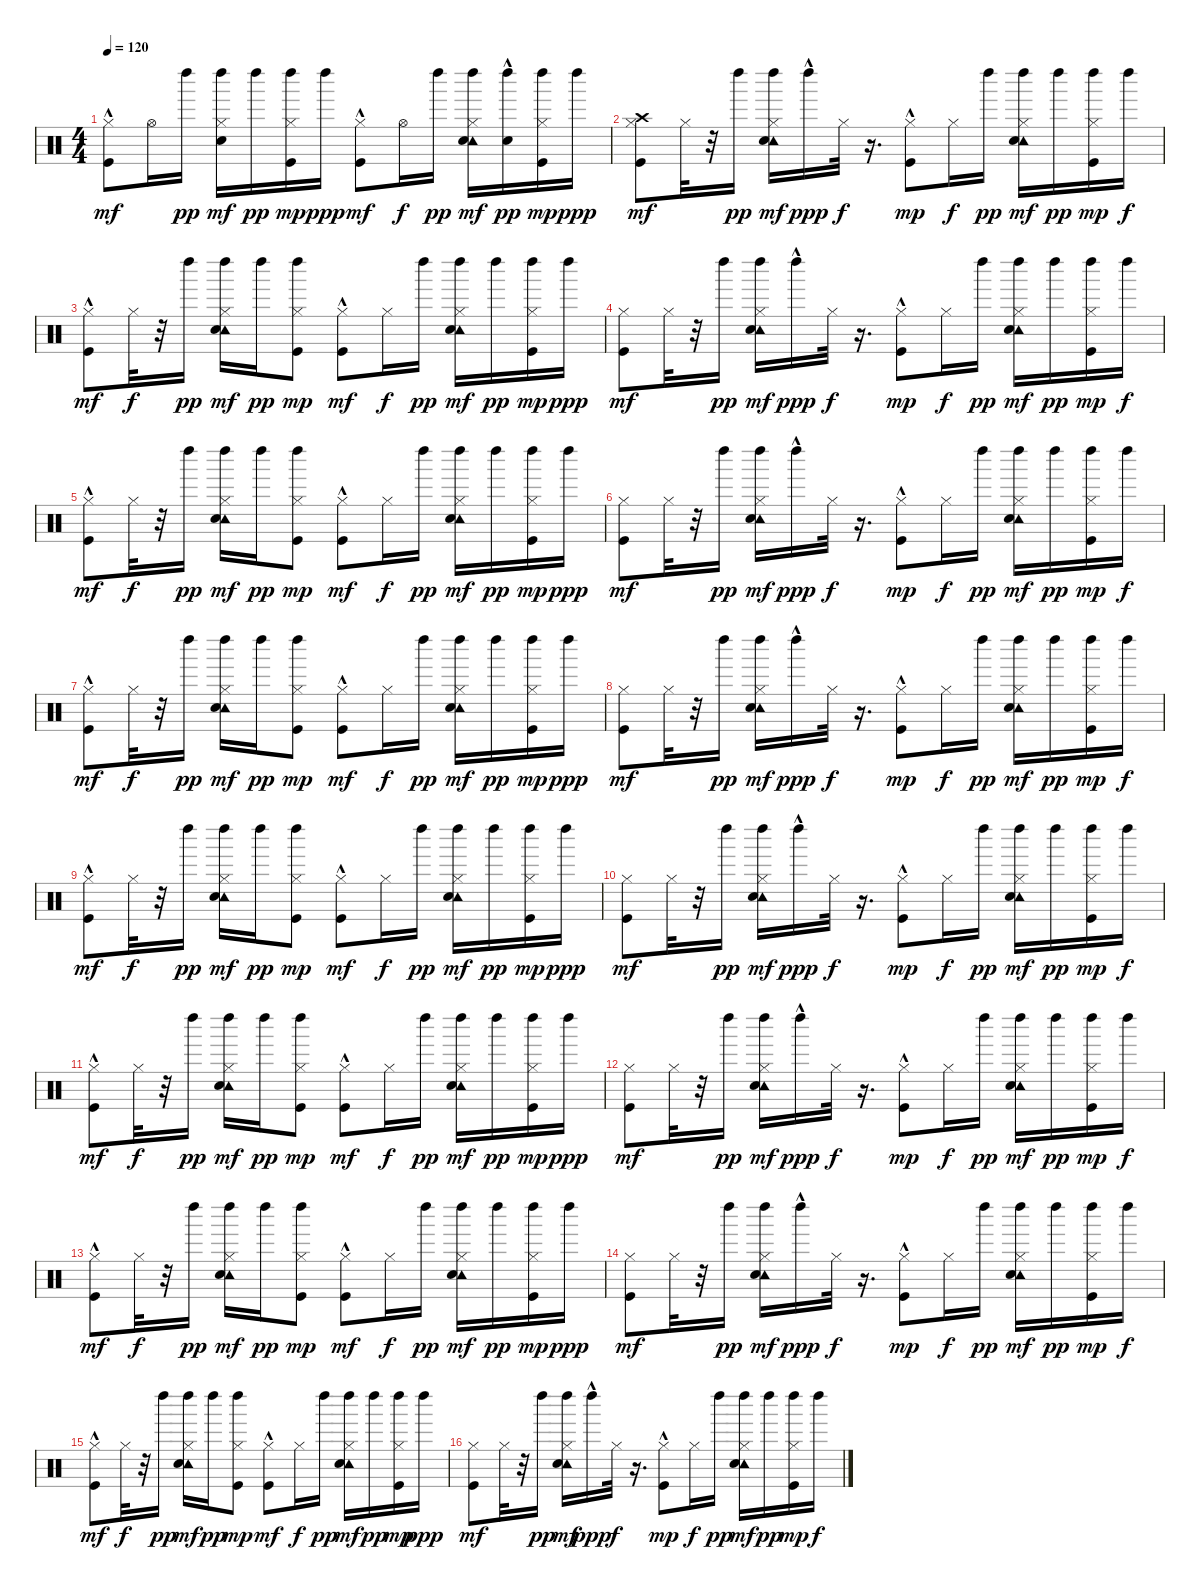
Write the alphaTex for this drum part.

\track "" {instrument percussion}
\staff {score}
\articulation defaults
\ts (4 4)
\tempo 120
\clef neutral
\ks c
("Kick (hit)"{hac} "Hi-Hat (closed)").8{dy mf} "Hi-Hat (open)".16 "Left Maraca (hit)".16{dy pp} ("Left Maraca (hit)" "Hi-Hat (closed)" "Electric Snare (hit)").16{dy mf} "Left Maraca (hit)".16{dy pp} ("Left Maraca (hit)" "Hi-Hat (closed)" "Kick (hit)").16{dy mp} "Left Maraca (hit)".16{dy ppp} ("Kick (hit)"{hac} "Hi-Hat (closed)").8{dy mf} "Hi-Hat (open)".16{dy f} "Left Maraca (hit)".16{dy pp} ("Left Maraca (hit)" "Tambourine (hit)" "Electric Snare (hit)" "Hi-Hat (closed)").16{dy mf} ("Electric Snare (hit)"{hac} "Left Maraca (hit)").16{dy pp} ("Left Maraca (hit)" "Kick (hit)" "Hi-Hat (closed)").16{dy mp} "Left Maraca (hit)".16{dy ppp} |
("Crash high (hit)" "Kick (hit)" "Hi-Hat (closed)").8{dy mf} "Hi-Hat (closed)".32 r.32 "Left Maraca (hit)".16{dy pp} ("Left Maraca (hit)" "Tambourine (hit)" "Electric Snare (hit)" "Hi-Hat (closed)").16{dy mf} "Left Maraca (hit)"{hac}.16{dy ppp} "Hi-Hat (closed)".32{dy f} r.16{d} ("Hi-Hat (closed)" "Kick (hit)"{hac}).8{dy mp} "Hi-Hat (closed)".16{dy f} "Left Maraca (hit)".16{dy pp} ("Left Maraca (hit)" "Tambourine (hit)" "Electric Snare (hit)" "Hi-Hat (closed)").16{dy mf} "Left Maraca (hit)".16{dy pp} ("Left Maraca (hit)" "Kick (hit)" "Hi-Hat (closed)").16{dy mp} "Left Maraca (hit)".16{dy f} |
("Kick (hit)"{hac} "Hi-Hat (closed)").8{dy mf} "Hi-Hat (closed)".32{dy f} r.32 "Left Maraca (hit)".16{dy pp} ("Left Maraca (hit)" "Tambourine (hit)" "Hi-Hat (closed)" "Electric Snare (hit)").16{dy mf} "Left Maraca (hit)".16{dy pp} ("Left Maraca (hit)" "Hi-Hat (closed)" "Kick (hit)").8{dy mp} ("Kick (hit)"{hac} "Hi-Hat (closed)").8{dy mf} "Hi-Hat (closed)".16{dy f} "Left Maraca (hit)".16{dy pp} ("Left Maraca (hit)" "Tambourine (hit)" "Electric Snare (hit)" "Hi-Hat (closed)").16{dy mf} "Left Maraca (hit)".16{dy pp} ("Left Maraca (hit)" "Kick (hit)" "Hi-Hat (closed)").16{dy mp} "Left Maraca (hit)".16{dy ppp} |
("Kick (hit)" "Hi-Hat (closed)").8{dy mf} "Hi-Hat (closed)".32 r.32 "Left Maraca (hit)".16{dy pp} ("Left Maraca (hit)" "Tambourine (hit)" "Electric Snare (hit)" "Hi-Hat (closed)").16{dy mf} "Left Maraca (hit)"{hac}.16{dy ppp} "Hi-Hat (closed)".32{dy f} r.16{d} ("Hi-Hat (closed)" "Kick (hit)"{hac}).8{dy mp} "Hi-Hat (closed)".16{dy f} "Left Maraca (hit)".16{dy pp} ("Left Maraca (hit)" "Tambourine (hit)" "Electric Snare (hit)" "Hi-Hat (closed)").16{dy mf} "Left Maraca (hit)".16{dy pp} ("Left Maraca (hit)" "Kick (hit)" "Hi-Hat (closed)").16{dy mp} "Left Maraca (hit)".16{dy f} |
("Kick (hit)"{hac} "Hi-Hat (closed)").8{dy mf} "Hi-Hat (closed)".32{dy f} r.32 "Left Maraca (hit)".16{dy pp} ("Left Maraca (hit)" "Tambourine (hit)" "Hi-Hat (closed)" "Electric Snare (hit)").16{dy mf} "Left Maraca (hit)".16{dy pp} ("Left Maraca (hit)" "Hi-Hat (closed)" "Kick (hit)").8{dy mp} ("Kick (hit)"{hac} "Hi-Hat (closed)").8{dy mf} "Hi-Hat (closed)".16{dy f} "Left Maraca (hit)".16{dy pp} ("Left Maraca (hit)" "Tambourine (hit)" "Electric Snare (hit)" "Hi-Hat (closed)").16{dy mf} "Left Maraca (hit)".16{dy pp} ("Left Maraca (hit)" "Kick (hit)" "Hi-Hat (closed)").16{dy mp} "Left Maraca (hit)".16{dy ppp} |
("Kick (hit)" "Hi-Hat (closed)").8{dy mf} "Hi-Hat (closed)".32 r.32 "Left Maraca (hit)".16{dy pp} ("Left Maraca (hit)" "Tambourine (hit)" "Electric Snare (hit)" "Hi-Hat (closed)").16{dy mf} "Left Maraca (hit)"{hac}.16{dy ppp} "Hi-Hat (closed)".32{dy f} r.16{d} ("Hi-Hat (closed)" "Kick (hit)"{hac}).8{dy mp} "Hi-Hat (closed)".16{dy f} "Left Maraca (hit)".16{dy pp} ("Left Maraca (hit)" "Tambourine (hit)" "Electric Snare (hit)" "Hi-Hat (closed)").16{dy mf} "Left Maraca (hit)".16{dy pp} ("Left Maraca (hit)" "Kick (hit)" "Hi-Hat (closed)").16{dy mp} "Left Maraca (hit)".16{dy f} |
("Kick (hit)"{hac} "Hi-Hat (closed)").8{dy mf} "Hi-Hat (closed)".32{dy f} r.32 "Left Maraca (hit)".16{dy pp} ("Left Maraca (hit)" "Tambourine (hit)" "Hi-Hat (closed)" "Electric Snare (hit)").16{dy mf} "Left Maraca (hit)".16{dy pp} ("Left Maraca (hit)" "Hi-Hat (closed)" "Kick (hit)").8{dy mp} ("Kick (hit)"{hac} "Hi-Hat (closed)").8{dy mf} "Hi-Hat (closed)".16{dy f} "Left Maraca (hit)".16{dy pp} ("Left Maraca (hit)" "Tambourine (hit)" "Electric Snare (hit)" "Hi-Hat (closed)").16{dy mf} "Left Maraca (hit)".16{dy pp} ("Left Maraca (hit)" "Kick (hit)" "Hi-Hat (closed)").16{dy mp} "Left Maraca (hit)".16{dy ppp} |
("Kick (hit)" "Hi-Hat (closed)").8{dy mf} "Hi-Hat (closed)".32 r.32 "Left Maraca (hit)".16{dy pp} ("Left Maraca (hit)" "Tambourine (hit)" "Electric Snare (hit)" "Hi-Hat (closed)").16{dy mf} "Left Maraca (hit)"{hac}.16{dy ppp} "Hi-Hat (closed)".32{dy f} r.16{d} ("Hi-Hat (closed)" "Kick (hit)"{hac}).8{dy mp} "Hi-Hat (closed)".16{dy f} "Left Maraca (hit)".16{dy pp} ("Left Maraca (hit)" "Tambourine (hit)" "Electric Snare (hit)" "Hi-Hat (closed)").16{dy mf} "Left Maraca (hit)".16{dy pp} ("Left Maraca (hit)" "Kick (hit)" "Hi-Hat (closed)").16{dy mp} "Left Maraca (hit)".16{dy f} |
("Kick (hit)"{hac} "Hi-Hat (closed)").8{dy mf} "Hi-Hat (closed)".32{dy f} r.32 "Left Maraca (hit)".16{dy pp} ("Left Maraca (hit)" "Tambourine (hit)" "Hi-Hat (closed)" "Electric Snare (hit)").16{dy mf} "Left Maraca (hit)".16{dy pp} ("Left Maraca (hit)" "Hi-Hat (closed)" "Kick (hit)").8{dy mp} ("Kick (hit)"{hac} "Hi-Hat (closed)").8{dy mf} "Hi-Hat (closed)".16{dy f} "Left Maraca (hit)".16{dy pp} ("Left Maraca (hit)" "Tambourine (hit)" "Electric Snare (hit)" "Hi-Hat (closed)").16{dy mf} "Left Maraca (hit)".16{dy pp} ("Left Maraca (hit)" "Kick (hit)" "Hi-Hat (closed)").16{dy mp} "Left Maraca (hit)".16{dy ppp} |
("Kick (hit)" "Hi-Hat (closed)").8{dy mf} "Hi-Hat (closed)".32 r.32 "Left Maraca (hit)".16{dy pp} ("Left Maraca (hit)" "Tambourine (hit)" "Electric Snare (hit)" "Hi-Hat (closed)").16{dy mf} "Left Maraca (hit)"{hac}.16{dy ppp} "Hi-Hat (closed)".32{dy f} r.16{d} ("Hi-Hat (closed)" "Kick (hit)"{hac}).8{dy mp} "Hi-Hat (closed)".16{dy f} "Left Maraca (hit)".16{dy pp} ("Left Maraca (hit)" "Tambourine (hit)" "Electric Snare (hit)" "Hi-Hat (closed)").16{dy mf} "Left Maraca (hit)".16{dy pp} ("Left Maraca (hit)" "Kick (hit)" "Hi-Hat (closed)").16{dy mp} "Left Maraca (hit)".16{dy f} |
("Kick (hit)"{hac} "Hi-Hat (closed)").8{dy mf} "Hi-Hat (closed)".32{dy f} r.32 "Left Maraca (hit)".16{dy pp} ("Left Maraca (hit)" "Tambourine (hit)" "Hi-Hat (closed)" "Electric Snare (hit)").16{dy mf} "Left Maraca (hit)".16{dy pp} ("Left Maraca (hit)" "Hi-Hat (closed)" "Kick (hit)").8{dy mp} ("Kick (hit)"{hac} "Hi-Hat (closed)").8{dy mf} "Hi-Hat (closed)".16{dy f} "Left Maraca (hit)".16{dy pp} ("Left Maraca (hit)" "Tambourine (hit)" "Electric Snare (hit)" "Hi-Hat (closed)").16{dy mf} "Left Maraca (hit)".16{dy pp} ("Left Maraca (hit)" "Kick (hit)" "Hi-Hat (closed)").16{dy mp} "Left Maraca (hit)".16{dy ppp} |
("Kick (hit)" "Hi-Hat (closed)").8{dy mf} "Hi-Hat (closed)".32 r.32 "Left Maraca (hit)".16{dy pp} ("Left Maraca (hit)" "Tambourine (hit)" "Electric Snare (hit)" "Hi-Hat (closed)").16{dy mf} "Left Maraca (hit)"{hac}.16{dy ppp} "Hi-Hat (closed)".32{dy f} r.16{d} ("Hi-Hat (closed)" "Kick (hit)"{hac}).8{dy mp} "Hi-Hat (closed)".16{dy f} "Left Maraca (hit)".16{dy pp} ("Left Maraca (hit)" "Tambourine (hit)" "Electric Snare (hit)" "Hi-Hat (closed)").16{dy mf} "Left Maraca (hit)".16{dy pp} ("Left Maraca (hit)" "Kick (hit)" "Hi-Hat (closed)").16{dy mp} "Left Maraca (hit)".16{dy f} |
("Kick (hit)"{hac} "Hi-Hat (closed)").8{dy mf} "Hi-Hat (closed)".32{dy f} r.32 "Left Maraca (hit)".16{dy pp} ("Left Maraca (hit)" "Tambourine (hit)" "Hi-Hat (closed)" "Electric Snare (hit)").16{dy mf} "Left Maraca (hit)".16{dy pp} ("Left Maraca (hit)" "Hi-Hat (closed)" "Kick (hit)").8{dy mp} ("Kick (hit)"{hac} "Hi-Hat (closed)").8{dy mf} "Hi-Hat (closed)".16{dy f} "Left Maraca (hit)".16{dy pp} ("Left Maraca (hit)" "Tambourine (hit)" "Electric Snare (hit)" "Hi-Hat (closed)").16{dy mf} "Left Maraca (hit)".16{dy pp} ("Left Maraca (hit)" "Kick (hit)" "Hi-Hat (closed)").16{dy mp} "Left Maraca (hit)".16{dy ppp} |
("Kick (hit)" "Hi-Hat (closed)").8{dy mf} "Hi-Hat (closed)".32 r.32 "Left Maraca (hit)".16{dy pp} ("Left Maraca (hit)" "Tambourine (hit)" "Electric Snare (hit)" "Hi-Hat (closed)").16{dy mf} "Left Maraca (hit)"{hac}.16{dy ppp} "Hi-Hat (closed)".32{dy f} r.16{d} ("Hi-Hat (closed)" "Kick (hit)"{hac}).8{dy mp} "Hi-Hat (closed)".16{dy f} "Left Maraca (hit)".16{dy pp} ("Left Maraca (hit)" "Tambourine (hit)" "Electric Snare (hit)" "Hi-Hat (closed)").16{dy mf} "Left Maraca (hit)".16{dy pp} ("Left Maraca (hit)" "Kick (hit)" "Hi-Hat (closed)").16{dy mp} "Left Maraca (hit)".16{dy f} |
("Kick (hit)"{hac} "Hi-Hat (closed)").8{dy mf} "Hi-Hat (closed)".32{dy f} r.32 "Left Maraca (hit)".16{dy pp} ("Left Maraca (hit)" "Tambourine (hit)" "Hi-Hat (closed)" "Electric Snare (hit)").16{dy mf} "Left Maraca (hit)".16{dy pp} ("Left Maraca (hit)" "Hi-Hat (closed)" "Kick (hit)").8{dy mp} ("Kick (hit)"{hac} "Hi-Hat (closed)").8{dy mf} "Hi-Hat (closed)".16{dy f} "Left Maraca (hit)".16{dy pp} ("Left Maraca (hit)" "Tambourine (hit)" "Electric Snare (hit)" "Hi-Hat (closed)").16{dy mf} "Left Maraca (hit)".16{dy pp} ("Left Maraca (hit)" "Kick (hit)" "Hi-Hat (closed)").16{dy mp} "Left Maraca (hit)".16{dy ppp} |
("Kick (hit)" "Hi-Hat (closed)").8{dy mf} "Hi-Hat (closed)".32 r.32 "Left Maraca (hit)".16{dy pp} ("Left Maraca (hit)" "Tambourine (hit)" "Electric Snare (hit)" "Hi-Hat (closed)").16{dy mf} "Left Maraca (hit)"{hac}.16{dy ppp} "Hi-Hat (closed)".32{dy f} r.16{d} ("Hi-Hat (closed)" "Kick (hit)"{hac}).8{dy mp} "Hi-Hat (closed)".16{dy f} "Left Maraca (hit)".16{dy pp} ("Left Maraca (hit)" "Tambourine (hit)" "Electric Snare (hit)" "Hi-Hat (closed)").16{dy mf} "Left Maraca (hit)".16{dy pp} ("Left Maraca (hit)" "Kick (hit)" "Hi-Hat (closed)").16{dy mp} "Left Maraca (hit)".16{dy f}
